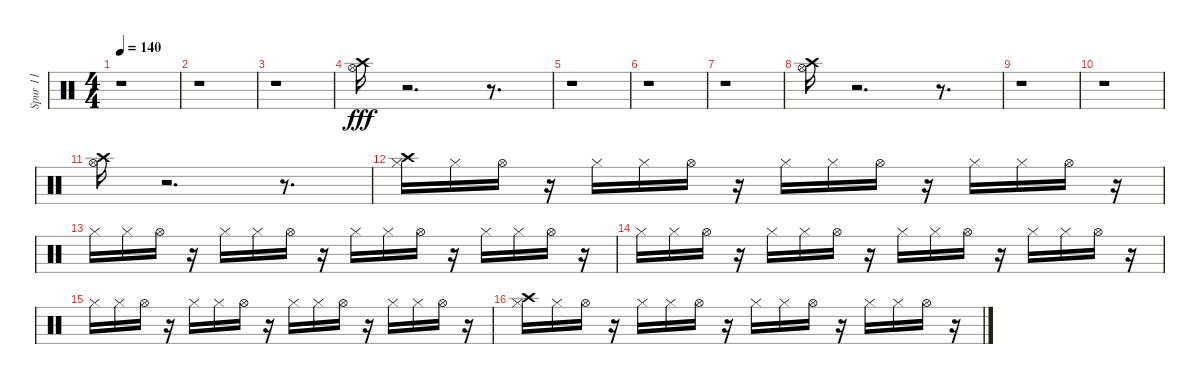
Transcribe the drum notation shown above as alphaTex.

\track ("Spur 11" "Spur 11") {instrument percussion}
\staff {score}
\articulation defaults
\ts (4 4)
\tempo 140
\clef neutral
\ks c
r.1{dy fff} |
r.1 |
r.1 |
("Hi-Hat (open)" "Crash high (hit)").16 r.2{d} r.8{d} |
r.1 |
r.1 |
r.1 |
("Hi-Hat (open)" "Crash high (hit)").16 r.2{d} r.8{d} |
r.1 |
r.1 |
("Hi-Hat (open)" "Crash high (hit)").16 r.2{d} r.8{d} |
("Crash high (hit)" "Hi-Hat (closed)").16 "Hi-Hat (closed)".16 "Hi-Hat (open)".16 r.16 "Hi-Hat (closed)".16 "Hi-Hat (closed)".16 "Hi-Hat (open)".16 r.16 "Hi-Hat (closed)".16 "Hi-Hat (closed)".16 "Hi-Hat (open)".16 r.16 "Hi-Hat (closed)".16 "Hi-Hat (closed)".16 "Hi-Hat (open)".16 r.16 |
"Hi-Hat (closed)".16 "Hi-Hat (closed)".16 "Hi-Hat (open)".16 r.16 "Hi-Hat (closed)".16 "Hi-Hat (closed)".16 "Hi-Hat (open)".16 r.16 "Hi-Hat (closed)".16 "Hi-Hat (closed)".16 "Hi-Hat (open)".16 r.16 "Hi-Hat (closed)".16 "Hi-Hat (closed)".16 "Hi-Hat (open)".16 r.16 |
"Hi-Hat (closed)".16 "Hi-Hat (closed)".16 "Hi-Hat (open)".16 r.16 "Hi-Hat (closed)".16 "Hi-Hat (closed)".16 "Hi-Hat (open)".16 r.16 "Hi-Hat (closed)".16 "Hi-Hat (closed)".16 "Hi-Hat (open)".16 r.16 "Hi-Hat (closed)".16 "Hi-Hat (closed)".16 "Hi-Hat (open)".16 r.16 |
"Hi-Hat (closed)".16 "Hi-Hat (closed)".16 "Hi-Hat (open)".16 r.16 "Hi-Hat (closed)".16 "Hi-Hat (closed)".16 "Hi-Hat (open)".16 r.16 "Hi-Hat (closed)".16 "Hi-Hat (closed)".16 "Hi-Hat (open)".16 r.16 "Hi-Hat (closed)".16 "Hi-Hat (closed)".16 "Hi-Hat (open)".16 r.16 |
("Crash high (hit)" "Hi-Hat (closed)").16 "Hi-Hat (closed)".16 "Hi-Hat (open)".16 r.16 "Hi-Hat (closed)".16 "Hi-Hat (closed)".16 "Hi-Hat (open)".16 r.16 "Hi-Hat (closed)".16 "Hi-Hat (closed)".16 "Hi-Hat (open)".16 r.16 "Hi-Hat (closed)".16 "Hi-Hat (closed)".16 "Hi-Hat (open)".16 r.16
